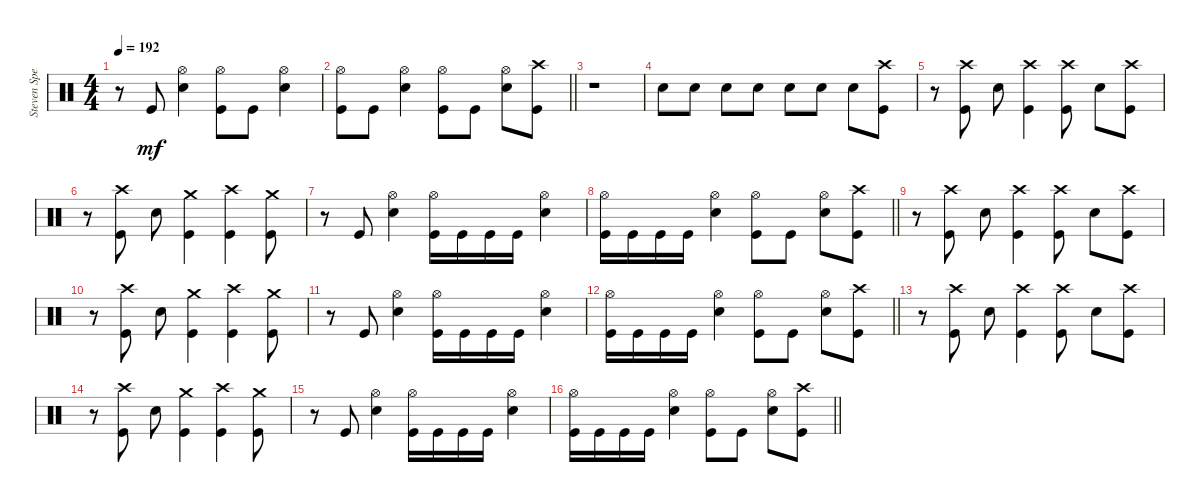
\track ("Steven Spence" "Steven Spe") {instrument percussion}
\staff {score}
\articulation defaults
\ts (4 4)
\tempo 192
\clef neutral
\ks c
r.8{dy mf} "Kick (hit)".8 ("Hi-Hat (open)" "Electric Snare (hit)").4 ("Hi-Hat (open)" "Kick (hit)").8 "Kick (hit)".8 ("Hi-Hat (open)" "Electric Snare (hit)").4 |
\barLineRight lightlight
("Hi-Hat (open)" "Kick (hit)").8 "Kick (hit)".8 ("Hi-Hat (open)" "Electric Snare (hit)").4 ("Hi-Hat (open)" "Kick (hit)").8 "Kick (hit)".8 ("Hi-Hat (open)" "Electric Snare (hit)").8 ("Crash high (hit)" "Kick (hit)").8 |
\section ("" "")
r.1 |
"Electric Snare (hit)".8 "Electric Snare (hit)".8 "Electric Snare (hit)".8 "Electric Snare (hit)".8 "Electric Snare (hit)".8 "Electric Snare (hit)".8 "Electric Snare (hit)".8 ("Crash high (hit)" "Kick (hit)").8 |
r.8 ("Crash high (hit)" "Kick (hit)").8 "Electric Snare (hit)".8 ("Crash high (hit)" "Kick (hit)").4 ("Crash high (hit)" "Kick (hit)").8 "Electric Snare (hit)".8 ("Crash high (hit)" "Kick (hit)").8 |
r.8 ("Crash high (hit)" "Kick (hit)").8 "Electric Snare (hit)".8 ("Crash medium (hit)" "Kick (hit)").4 ("Crash high (hit)" "Kick (hit)").4 ("Crash medium (hit)" "Kick (hit)").8 |
r.8 "Kick (hit)".8 ("Hi-Hat (open)" "Electric Snare (hit)").4 ("Hi-Hat (open)" "Kick (hit)").16 "Kick (hit)".16 "Kick (hit)".16 "Kick (hit)".16 ("Hi-Hat (open)" "Electric Snare (hit)").4 |
\barLineRight lightlight
("Hi-Hat (open)" "Kick (hit)").16 "Kick (hit)".16 "Kick (hit)".16 "Kick (hit)".16 ("Hi-Hat (open)" "Electric Snare (hit)").4 ("Hi-Hat (open)" "Kick (hit)").8 "Kick (hit)".8 ("Hi-Hat (open)" "Electric Snare (hit)").8 ("Crash high (hit)" "Kick (hit)").8 |
\section ("" "")
r.8 ("Crash high (hit)" "Kick (hit)").8 "Electric Snare (hit)".8 ("Crash high (hit)" "Kick (hit)").4 ("Crash high (hit)" "Kick (hit)").8 "Electric Snare (hit)".8 ("Crash high (hit)" "Kick (hit)").8 |
r.8 ("Crash high (hit)" "Kick (hit)").8 "Electric Snare (hit)".8 ("Crash medium (hit)" "Kick (hit)").4 ("Crash high (hit)" "Kick (hit)").4 ("Crash medium (hit)" "Kick (hit)").8 |
r.8 "Kick (hit)".8 ("Hi-Hat (open)" "Electric Snare (hit)").4 ("Hi-Hat (open)" "Kick (hit)").16 "Kick (hit)".16 "Kick (hit)".16 "Kick (hit)".16 ("Hi-Hat (open)" "Electric Snare (hit)").4 |
\barLineRight lightlight
("Hi-Hat (open)" "Kick (hit)").16 "Kick (hit)".16 "Kick (hit)".16 "Kick (hit)".16 ("Hi-Hat (open)" "Electric Snare (hit)").4 ("Hi-Hat (open)" "Kick (hit)").8 "Kick (hit)".8 ("Hi-Hat (open)" "Electric Snare (hit)").8 ("Crash high (hit)" "Kick (hit)").8 |
r.8 ("Crash high (hit)" "Kick (hit)").8 "Electric Snare (hit)".8 ("Crash high (hit)" "Kick (hit)").4 ("Crash high (hit)" "Kick (hit)").8 "Electric Snare (hit)".8 ("Crash high (hit)" "Kick (hit)").8 |
r.8 ("Crash high (hit)" "Kick (hit)").8 "Electric Snare (hit)".8 ("Crash medium (hit)" "Kick (hit)").4 ("Crash high (hit)" "Kick (hit)").4 ("Crash medium (hit)" "Kick (hit)").8 |
r.8 "Kick (hit)".8 ("Hi-Hat (open)" "Electric Snare (hit)").4 ("Hi-Hat (open)" "Kick (hit)").16 "Kick (hit)".16 "Kick (hit)".16 "Kick (hit)".16 ("Hi-Hat (open)" "Electric Snare (hit)").4 |
\barLineRight lightlight
("Hi-Hat (open)" "Kick (hit)").16 "Kick (hit)".16 "Kick (hit)".16 "Kick (hit)".16 ("Hi-Hat (open)" "Electric Snare (hit)").4 ("Hi-Hat (open)" "Kick (hit)").8 "Kick (hit)".8 ("Hi-Hat (open)" "Electric Snare (hit)").8 ("Crash high (hit)" "Kick (hit)").8
